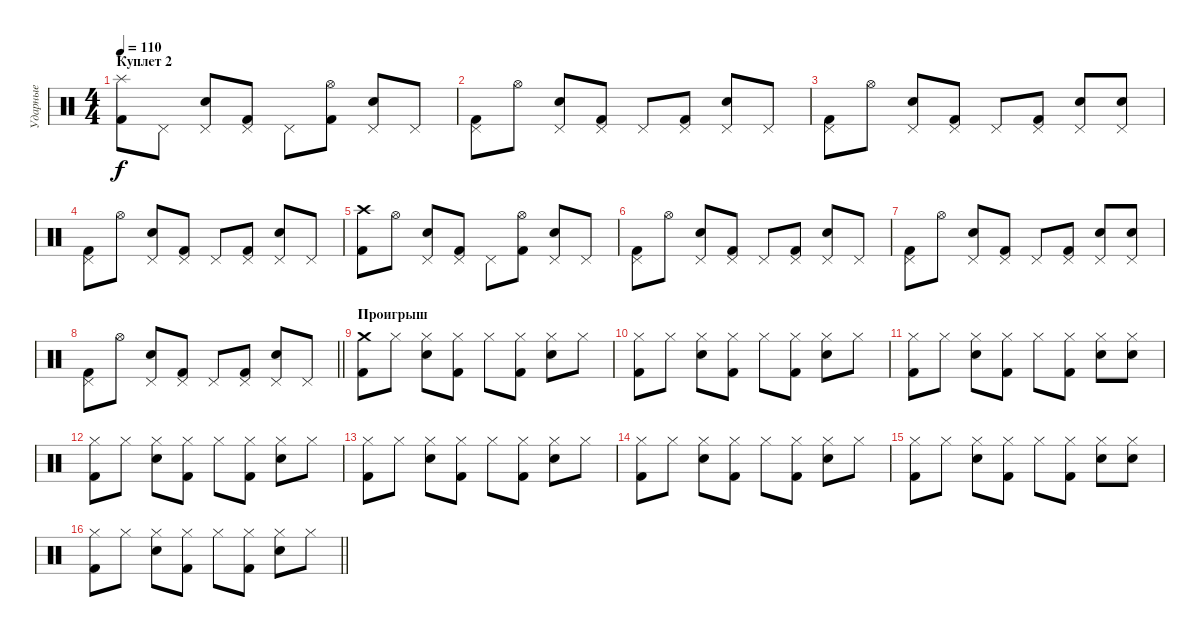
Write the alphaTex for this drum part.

\track ("Ударные" "Ударные") {instrument percussion}
\staff {score}
\articulation defaults
\ts (4 4)
\section ("" "Куплет 2")
\tempo 110
\clef neutral
\ks c
("Splash (hit)" "Kick (hit) 2").8{dy f} "Pedal Hi-Hat (hit)".8 ("Pedal Hi-Hat (hit)" "Electric Snare (hit)").8 ("Pedal Hi-Hat (hit)" "Kick (hit) 2").8 "Pedal Hi-Hat (hit)".8 ("Hi-Hat (open)" "Kick (hit) 2").8 ("Pedal Hi-Hat (hit)" "Electric Snare (hit)").8 "Pedal Hi-Hat (hit)".8 |
("Pedal Hi-Hat (hit)" "Kick (hit) 2").8 "Hi-Hat (open)".8 ("Pedal Hi-Hat (hit)" "Electric Snare (hit)").8 ("Pedal Hi-Hat (hit)" "Kick (hit) 2").8 "Pedal Hi-Hat (hit)".8 ("Pedal Hi-Hat (hit)" "Kick (hit) 2").8 ("Pedal Hi-Hat (hit)" "Electric Snare (hit)").8 "Pedal Hi-Hat (hit)".8 |
("Pedal Hi-Hat (hit)" "Kick (hit) 2").8 "Hi-Hat (open)".8 ("Pedal Hi-Hat (hit)" "Electric Snare (hit)").8 ("Pedal Hi-Hat (hit)" "Kick (hit) 2").8 "Pedal Hi-Hat (hit)".8 ("Pedal Hi-Hat (hit)" "Kick (hit) 2").8 ("Pedal Hi-Hat (hit)" "Electric Snare (hit)").8 ("Pedal Hi-Hat (hit)" "Electric Snare (hit)").8 |
("Pedal Hi-Hat (hit)" "Kick (hit) 2").8 "Hi-Hat (open)".8 ("Pedal Hi-Hat (hit)" "Electric Snare (hit)").8 ("Pedal Hi-Hat (hit)" "Kick (hit) 2").8 "Pedal Hi-Hat (hit)".8 ("Pedal Hi-Hat (hit)" "Kick (hit) 2").8 ("Pedal Hi-Hat (hit)" "Electric Snare (hit)").8 "Pedal Hi-Hat (hit)".8 |
("Crash high (hit)" "Kick (hit) 2").8 "Hi-Hat (open)".8 ("Pedal Hi-Hat (hit)" "Electric Snare (hit)").8 ("Pedal Hi-Hat (hit)" "Kick (hit) 2").8 "Pedal Hi-Hat (hit)".8 ("Hi-Hat (open)" "Kick (hit) 2").8 ("Pedal Hi-Hat (hit)" "Electric Snare (hit)").8 "Pedal Hi-Hat (hit)".8 |
("Pedal Hi-Hat (hit)" "Kick (hit) 2").8 "Hi-Hat (open)".8 ("Pedal Hi-Hat (hit)" "Electric Snare (hit)").8 ("Pedal Hi-Hat (hit)" "Kick (hit) 2").8 "Pedal Hi-Hat (hit)".8 ("Pedal Hi-Hat (hit)" "Kick (hit) 2").8 ("Pedal Hi-Hat (hit)" "Electric Snare (hit)").8 "Pedal Hi-Hat (hit)".8 |
("Pedal Hi-Hat (hit)" "Kick (hit) 2").8 "Hi-Hat (open)".8 ("Pedal Hi-Hat (hit)" "Electric Snare (hit)").8 ("Pedal Hi-Hat (hit)" "Kick (hit) 2").8 "Pedal Hi-Hat (hit)".8 ("Pedal Hi-Hat (hit)" "Kick (hit) 2").8 ("Pedal Hi-Hat (hit)" "Electric Snare (hit)").8 ("Pedal Hi-Hat (hit)" "Electric Snare (hit)").8 |
\barLineRight lightlight
("Pedal Hi-Hat (hit)" "Kick (hit) 2").8 "Hi-Hat (open)".8 ("Pedal Hi-Hat (hit)" "Electric Snare (hit)").8 ("Pedal Hi-Hat (hit)" "Kick (hit) 2").8 "Pedal Hi-Hat (hit)".8 ("Pedal Hi-Hat (hit)" "Kick (hit) 2").8 ("Pedal Hi-Hat (hit)" "Electric Snare (hit)").8 "Pedal Hi-Hat (hit)".8 |
\section ("" "Проигрыш")
("Crash medium (hit)" "Kick (hit) 2").8 "Hi-Hat (closed)".8 ("Hi-Hat (closed)" "Electric Snare (hit)").8 ("Hi-Hat (closed)" "Kick (hit) 2").8 "Hi-Hat (closed)".8 ("Hi-Hat (closed)" "Kick (hit) 2").8 ("Hi-Hat (closed)" "Electric Snare (hit)").8 "Hi-Hat (closed)".8 |
("Hi-Hat (closed)" "Kick (hit) 2").8 "Hi-Hat (closed)".8 ("Hi-Hat (closed)" "Electric Snare (hit)").8 ("Hi-Hat (closed)" "Kick (hit) 2").8 "Hi-Hat (closed)".8 ("Hi-Hat (closed)" "Kick (hit) 2").8 ("Hi-Hat (closed)" "Electric Snare (hit)").8 "Hi-Hat (closed)".8 |
("Hi-Hat (closed)" "Kick (hit) 2").8 "Hi-Hat (closed)".8 ("Hi-Hat (closed)" "Electric Snare (hit)").8 ("Hi-Hat (closed)" "Kick (hit) 2").8 "Hi-Hat (closed)".8 ("Hi-Hat (closed)" "Kick (hit) 2").8 ("Hi-Hat (closed)" "Electric Snare (hit)").8 ("Hi-Hat (closed)" "Electric Snare (hit)").8 |
("Hi-Hat (closed)" "Kick (hit) 2").8 "Hi-Hat (closed)".8 ("Hi-Hat (closed)" "Electric Snare (hit)").8 ("Hi-Hat (closed)" "Kick (hit) 2").8 "Hi-Hat (closed)".8 ("Hi-Hat (closed)" "Kick (hit) 2").8 ("Hi-Hat (closed)" "Electric Snare (hit)").8 "Hi-Hat (closed)".8 |
("Hi-Hat (closed)" "Kick (hit) 2").8 "Hi-Hat (closed)".8 ("Hi-Hat (closed)" "Electric Snare (hit)").8 ("Hi-Hat (closed)" "Kick (hit) 2").8 "Hi-Hat (closed)".8 ("Hi-Hat (closed)" "Kick (hit) 2").8 ("Hi-Hat (closed)" "Electric Snare (hit)").8 "Hi-Hat (closed)".8 |
("Hi-Hat (closed)" "Kick (hit) 2").8 "Hi-Hat (closed)".8 ("Hi-Hat (closed)" "Electric Snare (hit)").8 ("Hi-Hat (closed)" "Kick (hit) 2").8 "Hi-Hat (closed)".8 ("Hi-Hat (closed)" "Kick (hit) 2").8 ("Hi-Hat (closed)" "Electric Snare (hit)").8 "Hi-Hat (closed)".8 |
("Hi-Hat (closed)" "Kick (hit) 2").8 "Hi-Hat (closed)".8 ("Hi-Hat (closed)" "Electric Snare (hit)").8 ("Hi-Hat (closed)" "Kick (hit) 2").8 "Hi-Hat (closed)".8 ("Hi-Hat (closed)" "Kick (hit) 2").8 ("Hi-Hat (closed)" "Electric Snare (hit)").8 ("Hi-Hat (closed)" "Electric Snare (hit)").8 |
\barLineRight lightlight
("Hi-Hat (closed)" "Kick (hit) 2").8 "Hi-Hat (closed)".8 ("Hi-Hat (closed)" "Electric Snare (hit)").8 ("Hi-Hat (closed)" "Kick (hit) 2").8 "Hi-Hat (closed)".8 ("Hi-Hat (closed)" "Kick (hit) 2").8 ("Hi-Hat (closed)" "Electric Snare (hit)").8 "Hi-Hat (closed)".8
